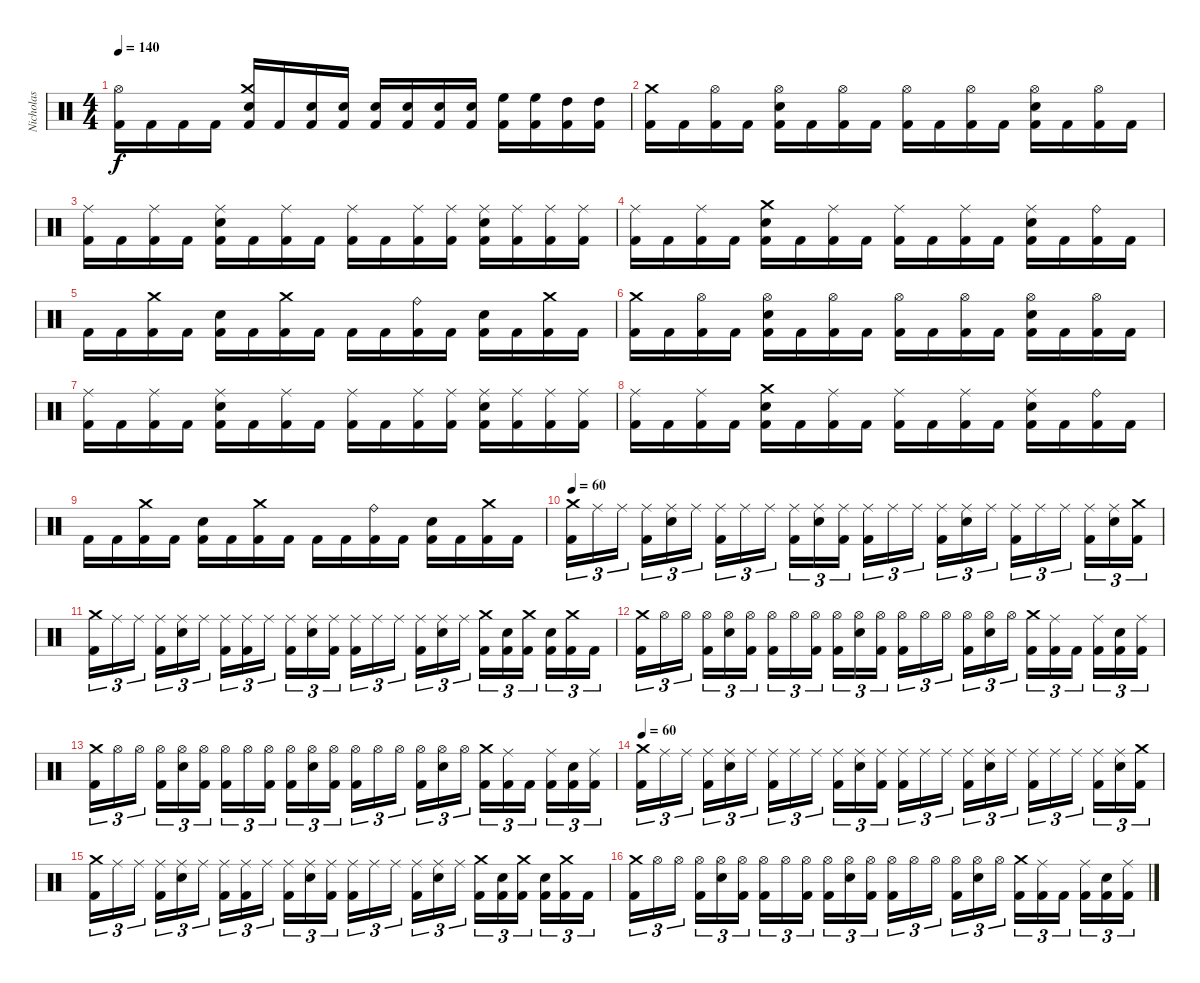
\track ("Nicholas" "Nicholas") {instrument percussion}
\staff {score}
\articulation defaults
\ts (4 4)
\tempo 140
\clef neutral
\ks c
("Hi-Hat (open)" "Kick (hit) 2").16{dy f} "Kick (hit) 2".16 "Kick (hit) 2".16 "Kick (hit) 2".16 ("Crash medium (hit)" "Snare (hit) 2" "Kick (hit) 2").16 "Kick (hit) 2".16 ("Snare (hit) 2" "Kick (hit) 2").16 ("Snare (hit) 2" "Kick (hit) 2").16 ("Snare (hit) 2" "Kick (hit) 2").16 ("Snare (hit) 2" "Kick (hit) 2").16 ("Snare (hit) 2" "Kick (hit) 2").16 ("Snare (hit) 2" "Kick (hit) 2").16 ("High Floor Tom (hit)" "Kick (hit) 2").16 ("High Floor Tom (hit)" "Kick (hit) 2").16 ("High Tom (hit)" "Kick (hit) 2").16 ("High Tom (hit)" "Kick (hit) 2").16 |
("Crash medium (hit)" "Kick (hit) 2").16 "Kick (hit) 2".16 ("Hi-Hat (open)" "Kick (hit) 2").16 "Kick (hit) 2".16 ("Hi-Hat (open)" "Snare (hit) 2" "Kick (hit) 2").16 "Kick (hit) 2".16 ("Hi-Hat (open)" "Kick (hit) 2").16 "Kick (hit) 2".16 ("Hi-Hat (open)" "Kick (hit) 2").16 "Kick (hit) 2".16 ("Hi-Hat (open)" "Kick (hit) 2").16 "Kick (hit) 2".16 ("Hi-Hat (open)" "Snare (hit) 2" "Kick (hit) 2").16 "Kick (hit) 2".16 ("Hi-Hat (open)" "Kick (hit) 2").16 "Kick (hit) 2".16 |
("Ride (middle)" "Kick (hit) 2").16 "Kick (hit) 2".16 ("Ride (middle)" "Kick (hit) 2").16 "Kick (hit) 2".16 ("Ride (middle)" "Snare (hit) 2" "Kick (hit) 2").16 "Kick (hit) 2".16 ("Ride (middle)" "Kick (hit) 2").16 "Kick (hit) 2".16 ("Ride (middle)" "Kick (hit) 2").16 "Kick (hit) 2".16 ("Ride (middle)" "Kick (hit) 2").16 ("Ride (middle)" "Kick (hit) 2").16 ("Ride (middle)" "Snare (hit) 2" "Kick (hit) 2").16 ("Ride (middle)" "Kick (hit) 2").16 ("Ride (middle)" "Kick (hit) 2").16 ("Ride (middle)" "Kick (hit) 2").16 |
("Ride (middle)" "Kick (hit) 2").16 "Kick (hit) 2".16 ("Ride (middle)" "Kick (hit) 2").16 "Kick (hit) 2".16 ("Crash medium (hit)" "Snare (hit) 2" "Kick (hit) 2").16 "Kick (hit) 2".16 ("Ride (middle)" "Kick (hit) 2").16 "Kick (hit) 2".16 ("Ride (middle)" "Kick (hit) 2").16 "Kick (hit) 2".16 ("Ride (middle)" "Kick (hit) 2").16 "Kick (hit) 2".16 ("Ride (middle)" "Snare (hit) 2" "Kick (hit) 2").16 "Kick (hit) 2".16 ("Ride (bell)" "Kick (hit) 2").16 "Kick (hit) 2".16 |
"Kick (hit) 2".16 "Kick (hit) 2".16 ("Crash medium (hit)" "Kick (hit) 2").16 "Kick (hit) 2".16 ("Snare (hit) 2" "Kick (hit) 2").16 "Kick (hit) 2".16 ("Crash medium (hit)" "Kick (hit) 2").16 "Kick (hit) 2".16 "Kick (hit) 2".16 "Kick (hit) 2".16 ("Ride (bell)" "Kick (hit) 2").16 "Kick (hit) 2".16 ("Snare (hit) 2" "Kick (hit) 2").16 "Kick (hit) 2".16 ("Crash medium (hit)" "Kick (hit) 2").16 "Kick (hit) 2".16 |
("Crash medium (hit)" "Kick (hit) 2").16 "Kick (hit) 2".16 ("Hi-Hat (open)" "Kick (hit) 2").16 "Kick (hit) 2".16 ("Hi-Hat (open)" "Snare (hit) 2" "Kick (hit) 2").16 "Kick (hit) 2".16 ("Hi-Hat (open)" "Kick (hit) 2").16 "Kick (hit) 2".16 ("Hi-Hat (open)" "Kick (hit) 2").16 "Kick (hit) 2".16 ("Hi-Hat (open)" "Kick (hit) 2").16 "Kick (hit) 2".16 ("Hi-Hat (open)" "Snare (hit) 2" "Kick (hit) 2").16 "Kick (hit) 2".16 ("Hi-Hat (open)" "Kick (hit) 2").16 "Kick (hit) 2".16 |
("Ride (middle)" "Kick (hit) 2").16 "Kick (hit) 2".16 ("Ride (middle)" "Kick (hit) 2").16 "Kick (hit) 2".16 ("Ride (middle)" "Snare (hit) 2" "Kick (hit) 2").16 "Kick (hit) 2".16 ("Ride (middle)" "Kick (hit) 2").16 "Kick (hit) 2".16 ("Ride (middle)" "Kick (hit) 2").16 "Kick (hit) 2".16 ("Ride (middle)" "Kick (hit) 2").16 ("Ride (middle)" "Kick (hit) 2").16 ("Ride (middle)" "Snare (hit) 2" "Kick (hit) 2").16 ("Ride (middle)" "Kick (hit) 2").16 ("Ride (middle)" "Kick (hit) 2").16 ("Ride (middle)" "Kick (hit) 2").16 |
("Ride (middle)" "Kick (hit) 2").16 "Kick (hit) 2".16 ("Ride (middle)" "Kick (hit) 2").16 "Kick (hit) 2".16 ("Crash medium (hit)" "Snare (hit) 2" "Kick (hit) 2").16 "Kick (hit) 2".16 ("Ride (middle)" "Kick (hit) 2").16 "Kick (hit) 2".16 ("Ride (middle)" "Kick (hit) 2").16 "Kick (hit) 2".16 ("Ride (middle)" "Kick (hit) 2").16 "Kick (hit) 2".16 ("Ride (middle)" "Snare (hit) 2" "Kick (hit) 2").16 "Kick (hit) 2".16 ("Ride (bell)" "Kick (hit) 2").16 "Kick (hit) 2".16 |
"Kick (hit) 2".16 "Kick (hit) 2".16 ("Crash medium (hit)" "Kick (hit) 2").16 "Kick (hit) 2".16 ("Snare (hit) 2" "Kick (hit) 2").16 "Kick (hit) 2".16 ("Crash medium (hit)" "Kick (hit) 2").16 "Kick (hit) 2".16 "Kick (hit) 2".16 "Kick (hit) 2".16 ("Ride (bell)" "Kick (hit) 2").16 "Kick (hit) 2".16 ("Snare (hit) 2" "Kick (hit) 2").16 "Kick (hit) 2".16 ("Crash medium (hit)" "Kick (hit) 2").16 "Kick (hit) 2".16 |
\tempo 60
("Crash medium (hit)" "Kick (hit) 2").16{tu (3 2)} "Ride (middle)".16{tu (3 2)} "Ride (middle)".16{tu (3 2) beam splitsecondary} ("Ride (middle)" "Kick (hit) 2").16{tu (3 2)} ("Ride (middle)" "Snare (hit) 2").16{tu (3 2)} "Ride (middle)".16{tu (3 2)} ("Ride (middle)" "Kick (hit) 2").16{tu (3 2)} "Ride (middle)".16{tu (3 2)} "Ride (middle)".16{tu (3 2) beam splitsecondary} ("Ride (middle)" "Kick (hit) 2").16{tu (3 2)} ("Ride (middle)" "Snare (hit) 2").16{tu (3 2)} ("Ride (middle)" "Kick (hit) 2").16{tu (3 2)} ("Ride (middle)" "Kick (hit) 2").16{tu (3 2)} "Ride (middle)".16{tu (3 2)} "Ride (middle)".16{tu (3 2) beam splitsecondary} ("Ride (middle)" "Kick (hit) 2").16{tu (3 2)} ("Ride (middle)" "Snare (hit) 2").16{tu (3 2)} "Ride (middle)".16{tu (3 2)} ("Ride (middle)" "Kick (hit) 2").16{tu (3 2)} "Ride (middle)".16{tu (3 2)} "Ride (middle)".16{tu (3 2) beam splitsecondary} ("Ride (middle)" "Kick (hit) 2").16{tu (3 2)} ("Ride (middle)" "Snare (hit) 2").16{tu (3 2)} ("Crash medium (hit)" "Kick (hit) 2").16{tu (3 2)} |
("Crash medium (hit)" "Kick (hit) 2").16{tu (3 2)} "Ride (middle)".16{tu (3 2)} "Ride (middle)".16{tu (3 2) beam splitsecondary} ("Ride (middle)" "Kick (hit) 2").16{tu (3 2)} ("Ride (middle)" "Snare (hit) 2").16{tu (3 2)} "Ride (middle)".16{tu (3 2)} ("Ride (middle)" "Kick (hit) 2").16{tu (3 2)} ("Ride (middle)" "Kick (hit) 2").16{tu (3 2)} "Ride (middle)".16{tu (3 2) beam splitsecondary} ("Ride (middle)" "Kick (hit) 2").16{tu (3 2)} ("Ride (middle)" "Snare (hit) 2").16{tu (3 2)} ("Ride (middle)" "Kick (hit) 2").16{tu (3 2)} ("Ride (middle)" "Kick (hit) 2").16{tu (3 2)} "Ride (middle)".16{tu (3 2)} "Ride (middle)".16{tu (3 2) beam splitsecondary} ("Ride (middle)" "Kick (hit) 2").16{tu (3 2)} ("Ride (middle)" "Snare (hit) 2").16{tu (3 2)} "Ride (middle)".16{tu (3 2)} ("Crash medium (hit)" "Kick (hit) 2").16{tu (3 2)} ("Snare (hit) 2" "Kick (hit) 2").16{tu (3 2)} ("Crash medium (hit)" "Kick (hit) 2").16{tu (3 2) beam splitsecondary} ("Snare (hit) 2" "Kick (hit) 2").16{tu (3 2)} ("Crash medium (hit)" "Kick (hit) 2").16{tu (3 2)} "Kick (hit) 2".16{tu (3 2)} |
("Crash medium (hit)" "Kick (hit) 2").16{tu (3 2)} "Hi-Hat (open)".16{tu (3 2)} "Hi-Hat (open)".16{tu (3 2) beam splitsecondary} ("Hi-Hat (open)" "Kick (hit) 2").16{tu (3 2)} ("Hi-Hat (open)" "Snare (hit) 2").16{tu (3 2)} ("Hi-Hat (open)" "Kick (hit) 2").16{tu (3 2)} ("Hi-Hat (open)" "Kick (hit) 2").16{tu (3 2)} "Hi-Hat (open)".16{tu (3 2)} ("Hi-Hat (open)" "Kick (hit) 2").16{tu (3 2) beam splitsecondary} ("Hi-Hat (open)" "Kick (hit) 2").16{tu (3 2)} ("Hi-Hat (open)" "Snare (hit) 2").16{tu (3 2)} ("Hi-Hat (open)" "Kick (hit) 2").16{tu (3 2)} ("Hi-Hat (open)" "Kick (hit) 2").16{tu (3 2)} "Hi-Hat (open)".16{tu (3 2)} "Hi-Hat (open)".16{tu (3 2) beam splitsecondary} ("Hi-Hat (open)" "Kick (hit) 2").16{tu (3 2)} ("Hi-Hat (open)" "Snare (hit) 2").16{tu (3 2)} "Hi-Hat (open)".16{tu (3 2)} ("Crash medium (hit)" "Kick (hit) 2").16{tu (3 2)} ("Ride (middle)" "Kick (hit) 2").16{tu (3 2)} "Kick (hit) 2".16{tu (3 2) beam splitsecondary} ("Ride (middle)" "Kick (hit) 2").16{tu (3 2)} ("Snare (hit) 2" "Kick (hit) 2").16{tu (3 2)} ("Ride (middle)" "Kick (hit) 2").16{tu (3 2)} |
("Crash medium (hit)" "Kick (hit) 2").16{tu (3 2)} "Hi-Hat (open)".16{tu (3 2)} "Hi-Hat (open)".16{tu (3 2) beam splitsecondary} ("Hi-Hat (open)" "Kick (hit) 2").16{tu (3 2)} ("Hi-Hat (open)" "Snare (hit) 2").16{tu (3 2)} ("Hi-Hat (open)" "Kick (hit) 2").16{tu (3 2)} ("Hi-Hat (open)" "Kick (hit) 2").16{tu (3 2)} "Hi-Hat (open)".16{tu (3 2)} ("Hi-Hat (open)" "Kick (hit) 2").16{tu (3 2) beam splitsecondary} ("Hi-Hat (open)" "Kick (hit) 2").16{tu (3 2)} ("Hi-Hat (open)" "Snare (hit) 2").16{tu (3 2)} ("Hi-Hat (open)" "Kick (hit) 2").16{tu (3 2)} ("Hi-Hat (open)" "Kick (hit) 2").16{tu (3 2)} "Hi-Hat (open)".16{tu (3 2)} "Hi-Hat (open)".16{tu (3 2) beam splitsecondary} ("Hi-Hat (open)" "Kick (hit) 2").16{tu (3 2)} ("Hi-Hat (open)" "Snare (hit) 2").16{tu (3 2)} "Hi-Hat (open)".16{tu (3 2)} ("Crash medium (hit)" "Kick (hit) 2").16{tu (3 2)} ("Ride (middle)" "Kick (hit) 2").16{tu (3 2)} "Kick (hit) 2".16{tu (3 2) beam splitsecondary} ("Ride (middle)" "Kick (hit) 2").16{tu (3 2)} ("Snare (hit) 2" "Kick (hit) 2").16{tu (3 2)} ("Ride (middle)" "Kick (hit) 2").16{tu (3 2)} |
\tempo 60
("Crash medium (hit)" "Kick (hit) 2").16{tu (3 2)} "Ride (middle)".16{tu (3 2)} "Ride (middle)".16{tu (3 2) beam splitsecondary} ("Ride (middle)" "Kick (hit) 2").16{tu (3 2)} ("Ride (middle)" "Snare (hit) 2").16{tu (3 2)} "Ride (middle)".16{tu (3 2)} ("Ride (middle)" "Kick (hit) 2").16{tu (3 2)} "Ride (middle)".16{tu (3 2)} "Ride (middle)".16{tu (3 2) beam splitsecondary} ("Ride (middle)" "Kick (hit) 2").16{tu (3 2)} ("Ride (middle)" "Snare (hit) 2").16{tu (3 2)} ("Ride (middle)" "Kick (hit) 2").16{tu (3 2)} ("Ride (middle)" "Kick (hit) 2").16{tu (3 2)} "Ride (middle)".16{tu (3 2)} "Ride (middle)".16{tu (3 2) beam splitsecondary} ("Ride (middle)" "Kick (hit) 2").16{tu (3 2)} ("Ride (middle)" "Snare (hit) 2").16{tu (3 2)} "Ride (middle)".16{tu (3 2)} ("Ride (middle)" "Kick (hit) 2").16{tu (3 2)} "Ride (middle)".16{tu (3 2)} "Ride (middle)".16{tu (3 2) beam splitsecondary} ("Ride (middle)" "Kick (hit) 2").16{tu (3 2)} ("Ride (middle)" "Snare (hit) 2").16{tu (3 2)} ("Crash medium (hit)" "Kick (hit) 2").16{tu (3 2)} |
("Crash medium (hit)" "Kick (hit) 2").16{tu (3 2)} "Ride (middle)".16{tu (3 2)} "Ride (middle)".16{tu (3 2) beam splitsecondary} ("Ride (middle)" "Kick (hit) 2").16{tu (3 2)} ("Ride (middle)" "Snare (hit) 2").16{tu (3 2)} "Ride (middle)".16{tu (3 2)} ("Ride (middle)" "Kick (hit) 2").16{tu (3 2)} ("Ride (middle)" "Kick (hit) 2").16{tu (3 2)} "Ride (middle)".16{tu (3 2) beam splitsecondary} ("Ride (middle)" "Kick (hit) 2").16{tu (3 2)} ("Ride (middle)" "Snare (hit) 2").16{tu (3 2)} ("Ride (middle)" "Kick (hit) 2").16{tu (3 2)} ("Ride (middle)" "Kick (hit) 2").16{tu (3 2)} "Ride (middle)".16{tu (3 2)} "Ride (middle)".16{tu (3 2) beam splitsecondary} ("Ride (middle)" "Kick (hit) 2").16{tu (3 2)} ("Ride (middle)" "Snare (hit) 2").16{tu (3 2)} "Ride (middle)".16{tu (3 2)} ("Crash medium (hit)" "Kick (hit) 2").16{tu (3 2)} ("Snare (hit) 2" "Kick (hit) 2").16{tu (3 2)} ("Crash medium (hit)" "Kick (hit) 2").16{tu (3 2) beam splitsecondary} ("Snare (hit) 2" "Kick (hit) 2").16{tu (3 2)} ("Crash medium (hit)" "Kick (hit) 2").16{tu (3 2)} "Kick (hit) 2".16{tu (3 2)} |
("Crash medium (hit)" "Kick (hit) 2").16{tu (3 2)} "Hi-Hat (open)".16{tu (3 2)} "Hi-Hat (open)".16{tu (3 2) beam splitsecondary} ("Hi-Hat (open)" "Kick (hit) 2").16{tu (3 2)} ("Hi-Hat (open)" "Snare (hit) 2").16{tu (3 2)} ("Hi-Hat (open)" "Kick (hit) 2").16{tu (3 2)} ("Hi-Hat (open)" "Kick (hit) 2").16{tu (3 2)} "Hi-Hat (open)".16{tu (3 2)} ("Hi-Hat (open)" "Kick (hit) 2").16{tu (3 2) beam splitsecondary} ("Hi-Hat (open)" "Kick (hit) 2").16{tu (3 2)} ("Hi-Hat (open)" "Snare (hit) 2").16{tu (3 2)} ("Hi-Hat (open)" "Kick (hit) 2").16{tu (3 2)} ("Hi-Hat (open)" "Kick (hit) 2").16{tu (3 2)} "Hi-Hat (open)".16{tu (3 2)} "Hi-Hat (open)".16{tu (3 2) beam splitsecondary} ("Hi-Hat (open)" "Kick (hit) 2").16{tu (3 2)} ("Hi-Hat (open)" "Snare (hit) 2").16{tu (3 2)} "Hi-Hat (open)".16{tu (3 2)} ("Crash medium (hit)" "Kick (hit) 2").16{tu (3 2)} ("Ride (middle)" "Kick (hit) 2").16{tu (3 2)} "Kick (hit) 2".16{tu (3 2) beam splitsecondary} ("Ride (middle)" "Kick (hit) 2").16{tu (3 2)} ("Snare (hit) 2" "Kick (hit) 2").16{tu (3 2)} ("Ride (middle)" "Kick (hit) 2").16{tu (3 2)}
